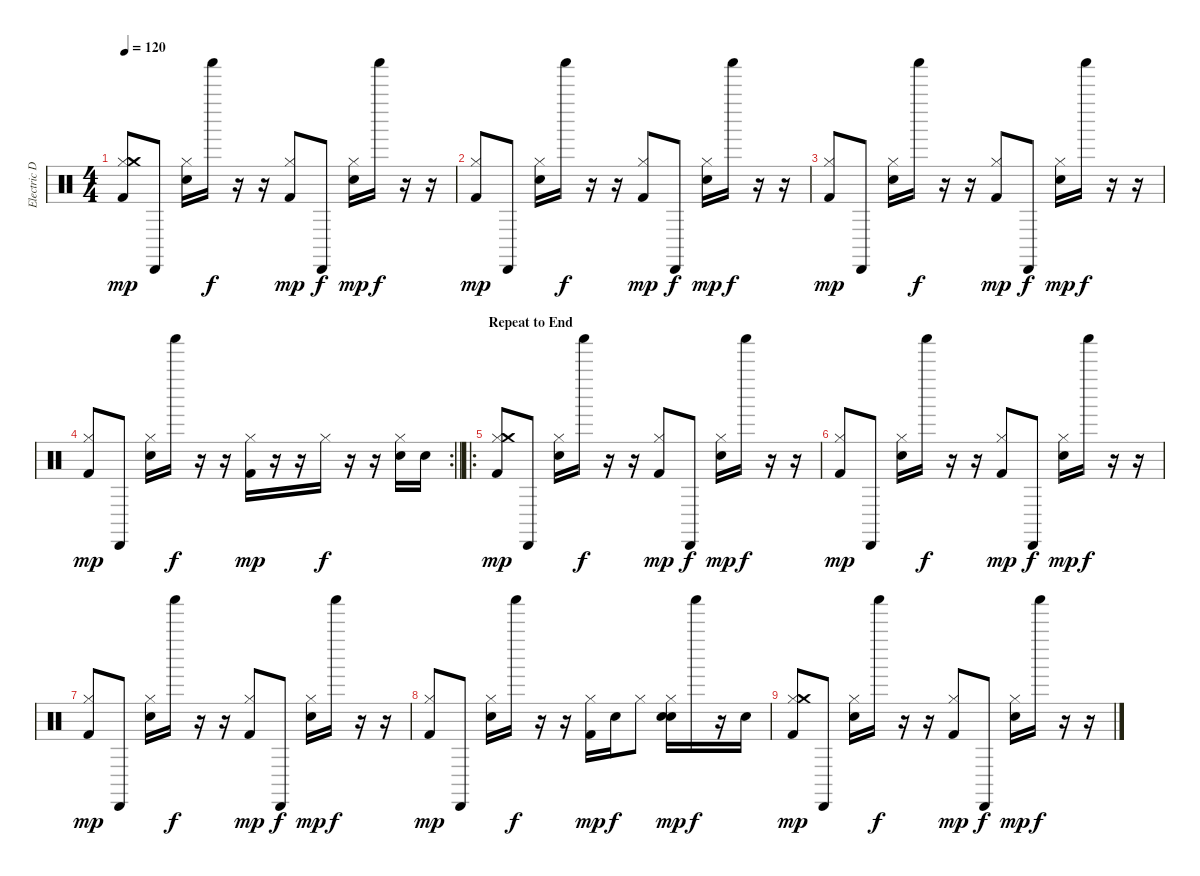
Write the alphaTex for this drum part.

\track ("Electric Drum" "Electric D") {instrument percussion}
\staff {score}
\articulation defaults
\ts (4 4)
\tempo 120
\clef neutral
\ks c
("Hi-Hat (closed)" "Crash medium (hit)" "Kick (hit) 2").8{dy mp} "Cabasa (hit)".8 ("Hi-Hat (closed)" "Snare (hit) 2").16 "Shaker (hit)".16{dy f} r.16 r.16 ("Hi-Hat (closed)" "Kick (hit) 2").8{dy mp} "Cabasa (hit)".8{dy f} ("Hi-Hat (closed)" "Snare (hit) 2").16{dy mp} "Shaker (hit)".16{dy f} r.16 r.16 |
("Hi-Hat (closed)" "Kick (hit) 2").8{dy mp} "Cabasa (hit)".8 ("Hi-Hat (closed)" "Snare (hit) 2").16 "Shaker (hit)".16{dy f} r.16 r.16 ("Hi-Hat (closed)" "Kick (hit) 2").8{dy mp} "Cabasa (hit)".8{dy f} ("Hi-Hat (closed)" "Snare (hit) 2").16{dy mp} "Shaker (hit)".16{dy f} r.16 r.16 |
("Hi-Hat (closed)" "Kick (hit) 2").8{dy mp} "Cabasa (hit)".8 ("Hi-Hat (closed)" "Snare (hit) 2").16 "Shaker (hit)".16{dy f} r.16 r.16 ("Hi-Hat (closed)" "Kick (hit) 2").8{dy mp} "Cabasa (hit)".8{dy f} ("Hi-Hat (closed)" "Snare (hit) 2").16{dy mp} "Shaker (hit)".16{dy f} r.16 r.16 |
\rc 2
\barLineRight lightlight
("Hi-Hat (closed)" "Kick (hit) 2").8{dy mp} "Cabasa (hit)".8 ("Hi-Hat (closed)" "Snare (hit) 2").16 "Shaker (hit)".16{dy f} r.16 r.16 ("Hi-Hat (closed)" "Kick (hit) 2").16{dy mp} r.16 r.16 "Hi-Hat (closed)".16{dy f} r.16 r.16 ("Hi-Hat (closed)" "Snare (hit) 2").16 "Snare (hit) 2".16 |
\ro
\section ("" "Repeat to End")
("Hi-Hat (closed)" "Crash medium (hit)" "Kick (hit) 2").8{dy mp} "Cabasa (hit)".8 ("Hi-Hat (closed)" "Snare (hit) 2").16 "Shaker (hit)".16{dy f} r.16 r.16 ("Hi-Hat (closed)" "Kick (hit) 2").8{dy mp} "Cabasa (hit)".8{dy f} ("Hi-Hat (closed)" "Snare (hit) 2").16{dy mp} "Shaker (hit)".16{dy f} r.16 r.16 |
("Hi-Hat (closed)" "Kick (hit) 2").8{dy mp} "Cabasa (hit)".8 ("Hi-Hat (closed)" "Snare (hit) 2").16 "Shaker (hit)".16{dy f} r.16 r.16 ("Hi-Hat (closed)" "Kick (hit) 2").8{dy mp} "Cabasa (hit)".8{dy f} ("Hi-Hat (closed)" "Snare (hit) 2").16{dy mp} "Shaker (hit)".16{dy f} r.16 r.16 |
("Hi-Hat (closed)" "Kick (hit) 2").8{dy mp} "Cabasa (hit)".8 ("Hi-Hat (closed)" "Snare (hit) 2").16 "Shaker (hit)".16{dy f} r.16 r.16 ("Hi-Hat (closed)" "Kick (hit) 2").8{dy mp} "Cabasa (hit)".8{dy f} ("Hi-Hat (closed)" "Snare (hit) 2").16{dy mp} "Shaker (hit)".16{dy f} r.16 r.16 |
("Hi-Hat (closed)" "Kick (hit) 2").8{dy mp} "Cabasa (hit)".8 ("Hi-Hat (closed)" "Snare (hit) 2").16 "Shaker (hit)".16{dy f} r.16 r.16 ("Hi-Hat (closed)" "Kick (hit) 2").16{dy mp} "Hand Clap (hit)".16{dy f} "Hi-Hat (closed)".8 ("Hi-Hat (closed)" "Snare (hit) 2" "Hand Clap (hit)").16{dy mp} "Shaker (hit)".16{dy f} r.16 "Hand Clap (hit)".16 |
("Hi-Hat (closed)" "Crash medium (hit)" "Kick (hit) 2").8{dy mp} "Cabasa (hit)".8 ("Hi-Hat (closed)" "Snare (hit) 2").16 "Shaker (hit)".16{dy f} r.16 r.16 ("Hi-Hat (closed)" "Kick (hit) 2").8{dy mp} "Cabasa (hit)".8{dy f} ("Hi-Hat (closed)" "Snare (hit) 2").16{dy mp} "Shaker (hit)".16{dy f} r.16 r.16
